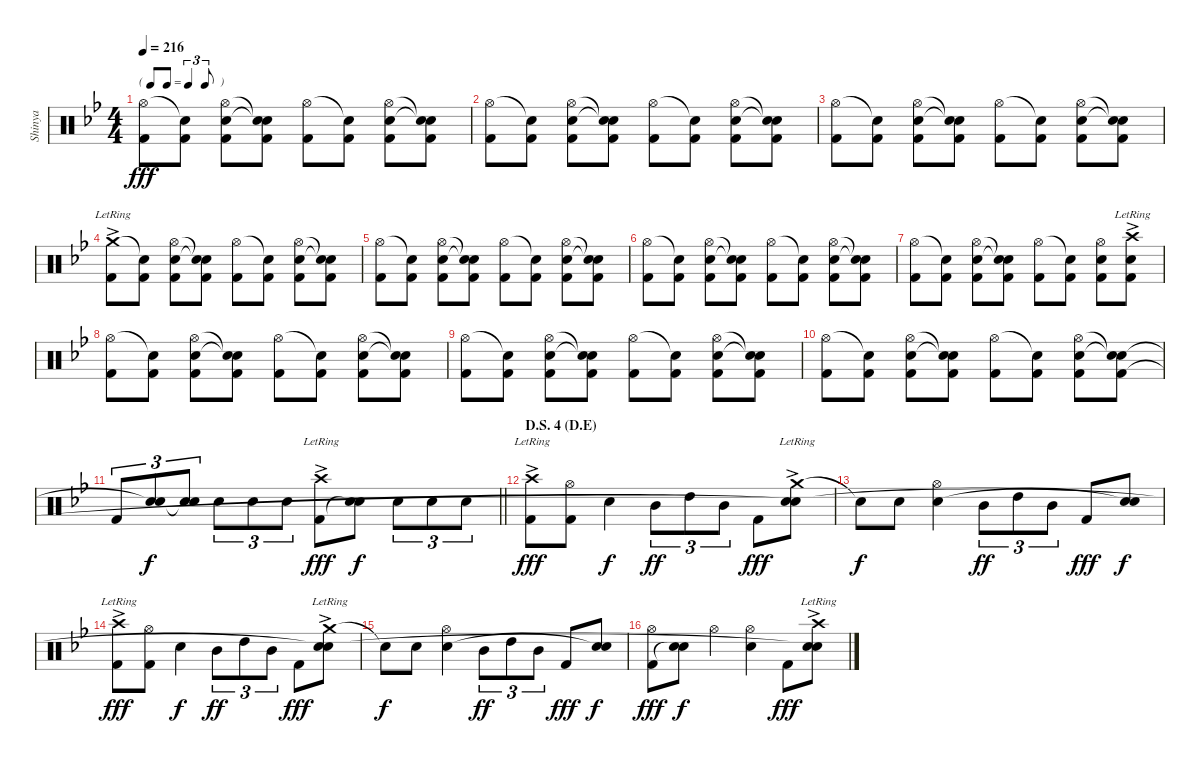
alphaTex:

\track ("Shinya" "Shinya") {instrument percussion}
\staff {score}
\articulation defaults
\ts (4 4)
\tf triplet8th
\tempo 216
\clef neutral
\ks bb
("Hi-Hat (open)" "Kick (hit) 2").8{dy fff} ("Snare (hit)"{t} "Kick (hit) 2").8 ("Hi-Hat (open)" "Electric Snare (hit)" "Kick (hit) 2").8 ("Snare (hit)"{t} "Snare (hit)"{t} "Kick (hit) 2").8 ("Hi-Hat (open)" "Kick (hit) 2").8 ("Snare (hit)"{t} "Kick (hit) 2").8 ("Hi-Hat (open)" "Electric Snare (hit)" "Kick (hit) 2").8 ("Snare (hit)"{t} "Snare (hit)"{t} "Kick (hit) 2").8 |
("Hi-Hat (open)" "Kick (hit) 2").8 ("Snare (hit)"{t} "Kick (hit) 2").8 ("Hi-Hat (open)" "Electric Snare (hit)" "Kick (hit) 2").8 ("Snare (hit)"{t} "Snare (hit)"{t} "Kick (hit) 2").8 ("Hi-Hat (open)" "Kick (hit) 2").8 ("Snare (hit)"{t} "Kick (hit) 2").8 ("Hi-Hat (open)" "Electric Snare (hit)" "Kick (hit) 2").8 ("Snare (hit)"{t} "Snare (hit)"{t} "Kick (hit) 2").8 |
("Hi-Hat (open)" "Kick (hit) 2").8 ("Snare (hit)"{t} "Kick (hit) 2").8 ("Hi-Hat (open)" "Electric Snare (hit)" "Kick (hit) 2").8 ("Snare (hit)"{t} "Snare (hit)"{t} "Kick (hit) 2").8 ("Hi-Hat (open)" "Kick (hit) 2").8 ("Snare (hit)"{t} "Kick (hit) 2").8 ("Hi-Hat (open)" "Electric Snare (hit)" "Kick (hit) 2").8 ("Snare (hit)"{t} "Snare (hit)"{t} "Kick (hit) 2").8 |
("Crash medium (hit)"{ac lr} "Kick (hit) 2").8 ("Snare (hit)"{t} "Kick (hit) 2").8 ("Hi-Hat (open)" "Electric Snare (hit)" "Kick (hit) 2").8 ("Snare (hit)"{t} "Snare (hit)"{t} "Kick (hit) 2").8 ("Hi-Hat (open)" "Kick (hit) 2").8 ("Snare (hit)"{t} "Kick (hit) 2").8 ("Hi-Hat (open)" "Electric Snare (hit)" "Kick (hit) 2").8 ("Snare (hit)"{t} "Snare (hit)"{t} "Kick (hit) 2").8 |
("Hi-Hat (open)" "Kick (hit) 2").8 ("Snare (hit)"{t} "Kick (hit) 2").8 ("Hi-Hat (open)" "Electric Snare (hit)" "Kick (hit) 2").8 ("Snare (hit)"{t} "Snare (hit)"{t} "Kick (hit) 2").8 ("Hi-Hat (open)" "Kick (hit) 2").8 ("Snare (hit)"{t} "Kick (hit) 2").8 ("Hi-Hat (open)" "Electric Snare (hit)" "Kick (hit) 2").8 ("Snare (hit)"{t} "Snare (hit)"{t} "Kick (hit) 2").8 |
("Hi-Hat (open)" "Kick (hit) 2").8 ("Snare (hit)"{t} "Kick (hit) 2").8 ("Hi-Hat (open)" "Electric Snare (hit)" "Kick (hit) 2").8 ("Snare (hit)"{t} "Snare (hit)"{t} "Kick (hit) 2").8 ("Hi-Hat (open)" "Kick (hit) 2").8 ("Snare (hit)"{t} "Kick (hit) 2").8 ("Hi-Hat (open)" "Electric Snare (hit)" "Kick (hit) 2").8 ("Snare (hit)"{t} "Snare (hit)"{t} "Kick (hit) 2").8 |
("Hi-Hat (open)" "Kick (hit) 2").8 ("Snare (hit)"{t} "Kick (hit) 2").8 ("Hi-Hat (open)" "Electric Snare (hit)" "Kick (hit) 2").8 ("Snare (hit)"{t} "Snare (hit)"{t} "Kick (hit) 2").8 ("Hi-Hat (open)" "Kick (hit) 2").8 ("Snare (hit)"{t} "Kick (hit) 2").8 ("Hi-Hat (open)" "Electric Snare (hit)" "Kick (hit) 2").8 ("Crash high (hit)"{ac lr} "Electric Snare (hit)" "Kick (hit) 2").8 |
("Hi-Hat (open)" "Kick (hit) 2").8 ("Snare (hit)"{t} "Kick (hit) 2").8 ("Hi-Hat (open)" "Electric Snare (hit)" "Kick (hit) 2").8 ("Snare (hit)"{t} "Snare (hit)"{t} "Kick (hit) 2").8 ("Hi-Hat (open)" "Kick (hit) 2").8 ("Snare (hit)"{t} "Kick (hit) 2").8 ("Hi-Hat (open)" "Electric Snare (hit)" "Kick (hit) 2").8 ("Snare (hit)"{t} "Snare (hit)"{t} "Kick (hit) 2").8 |
("Hi-Hat (open)" "Kick (hit) 2").8 ("Snare (hit)"{t} "Kick (hit) 2").8 ("Hi-Hat (open)" "Electric Snare (hit)" "Kick (hit) 2").8 ("Snare (hit)"{t} "Snare (hit)"{t} "Kick (hit) 2").8 ("Hi-Hat (open)" "Kick (hit) 2").8 ("Snare (hit)"{t} "Kick (hit) 2").8 ("Hi-Hat (open)" "Electric Snare (hit)" "Kick (hit) 2").8 ("Snare (hit)"{t} "Snare (hit)"{t} "Kick (hit) 2").8 |
("Hi-Hat (open)" "Kick (hit) 2").8 ("Snare (hit)"{t} "Kick (hit) 2").8 ("Hi-Hat (open)" "Electric Snare (hit)" "Kick (hit) 2").8 ("Snare (hit)"{t} "Snare (hit)"{t} "Kick (hit) 2").8 ("Hi-Hat (open)" "Kick (hit) 2").8 ("Snare (hit)"{t} "Kick (hit) 2").8 ("Hi-Hat (open)" "Electric Snare (hit)" "Kick (hit) 2").8 ("Snare (hit)"{t} "Snare (hit)"{t} "Kick (hit) 2").8 |
\barLineRight lightlight "Kick (hit) 2".8{tu (3 2)}
("Electric Snare (hit)" "Snare (hit)"{t}).8{tu (3 2) dy f} ("Electric Snare (hit)" "Snare (hit)"{t}).8{tu (3 2)} "Electric Snare (hit)".8{tu (3 2)} "Electric Snare (hit)".8{tu (3 2)} "Electric Snare (hit)".8{tu (3 2)} ("Crash high (hit)"{ac lr} "Kick (hit) 2").8{dy fff} ("Electric Snare (hit)" "Snare (hit)"{t}).8{dy f} "Electric Snare (hit)".8{tu (3 2)} "Electric Snare (hit)".8{tu (3 2)} "Electric Snare (hit)".8{tu (3 2)} |
\section ("" "D.S. 4 (D.E)")
("Crash high (hit)"{ac lr} "Kick (hit) 2").8{dy fff} ("Hi-Hat (open)" "Kick (hit) 2").8 "Electric Snare (hit)".4{dy f} "Mid Tom (hit)".8{tu (3 2) dy ff} "High Tom (hit)".8{tu (3 2)} "Mid Tom (hit)".8{tu (3 2)} "Kick (hit) 2".8{dy fff} ("Crash medium (hit)"{ac lr} "Electric Snare (hit)" "Snare (hit)"{t}).8 |
"Snare (hit)"{t}.8{dy f} "Electric Snare (hit)".8 ("Hi-Hat (open)" "Electric Snare (hit)").4 "Mid Tom (hit)".8{tu (3 2) dy ff} "High Tom (hit)".8{tu (3 2)} "Mid Tom (hit)".8{tu (3 2)} "Kick (hit) 2".8{dy fff} ("Electric Snare (hit)" "Snare (hit)"{t}).8{dy f} |
("Crash high (hit)"{ac lr} "Kick (hit) 2").8{dy fff} ("Hi-Hat (open)" "Kick (hit) 2").8 "Electric Snare (hit)".4{dy f} "Mid Tom (hit)".8{tu (3 2) dy ff} "High Tom (hit)".8{tu (3 2)} "Mid Tom (hit)".8{tu (3 2)} "Kick (hit) 2".8{dy fff} ("Crash medium (hit)"{ac lr} "Electric Snare (hit)" "Snare (hit)"{t}).8 |
"Snare (hit)"{t}.8{dy f} "Electric Snare (hit)".8 ("Hi-Hat (open)" "Electric Snare (hit)").4 "Mid Tom (hit)".8{tu (3 2) dy ff} "High Tom (hit)".8{tu (3 2)} "Mid Tom (hit)".8{tu (3 2)} "Kick (hit) 2".8{dy fff} ("Electric Snare (hit)" "Snare (hit)"{t}).8{dy f} |
("Hi-Hat (open)" "Kick (hit) 2").8{dy fff} ("Electric Snare (hit)" "Snare (hit)"{t}).8{dy f} "Hi-Hat (open)".4 ("Hi-Hat (open)" "Electric Snare (hit)").4 "Kick (hit) 2".8{dy fff} ("Crash high (hit)"{ac lr} "Electric Snare (hit)" "Snare (hit)"{t}).8
